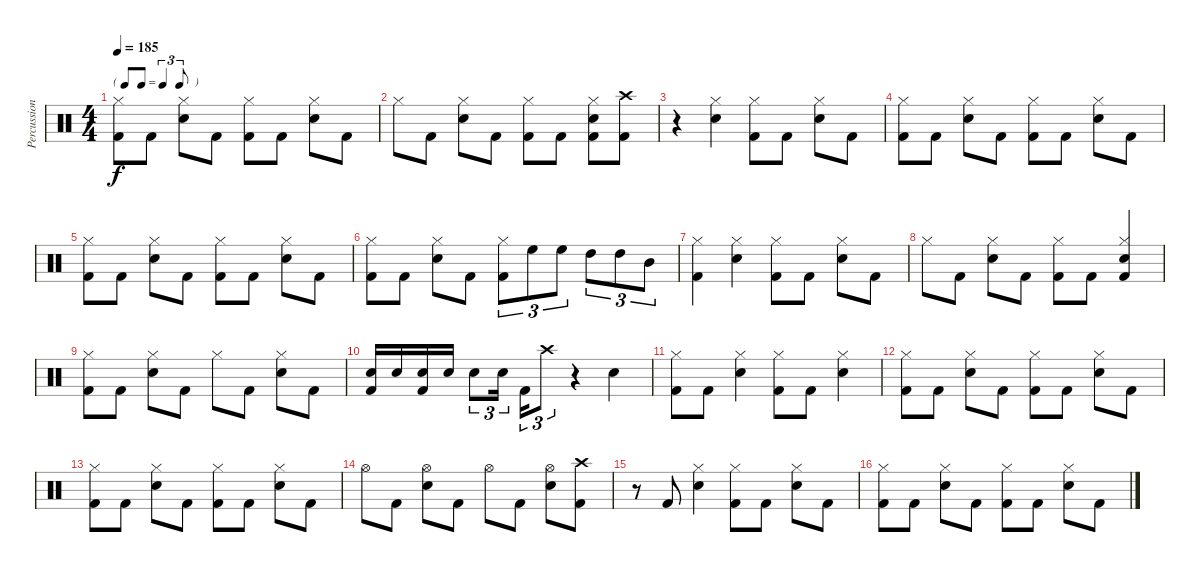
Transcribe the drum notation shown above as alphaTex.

\track ("Percussion" "Percussion") {instrument percussion}
\staff {score}
\articulation defaults
\ts (4 4)
\tf triplet8th
\tempo 185
\clef neutral
\ks c
("Kick (hit) 2" "Hi-Hat (closed)").8{dy f} "Kick (hit) 2".8 ("Snare (hit) 2" "Hi-Hat (closed)").8 "Kick (hit) 2".8 ("Kick (hit) 2" "Hi-Hat (closed)").8 "Kick (hit) 2".8 ("Snare (hit) 2" "Hi-Hat (closed)").8 "Kick (hit) 2".8 |
"Hi-Hat (closed)".8 "Kick (hit) 2".8 ("Snare (hit) 2" "Hi-Hat (closed)").8 "Kick (hit) 2".8 ("Kick (hit) 2" "Hi-Hat (closed)").8 "Kick (hit) 2".8 ("Kick (hit) 2" "Snare (hit) 2" "Hi-Hat (closed)").8 ("Kick (hit) 2" "Crash high (hit)").8 |
r.4 ("Snare (hit) 2" "Hi-Hat (closed)").4 ("Kick (hit) 2" "Hi-Hat (closed)").8 "Kick (hit) 2".8 ("Snare (hit) 2" "Hi-Hat (closed)").8 "Kick (hit) 2".8 |
("Kick (hit) 2" "Hi-Hat (closed)").8 "Kick (hit) 2".8 ("Snare (hit) 2" "Hi-Hat (closed)").8 "Kick (hit) 2".8 ("Kick (hit) 2" "Hi-Hat (closed)").8 "Kick (hit) 2".8 ("Snare (hit) 2" "Hi-Hat (closed)").8 "Kick (hit) 2".8 |
("Kick (hit) 2" "Hi-Hat (closed)").8 "Kick (hit) 2".8 ("Snare (hit) 2" "Hi-Hat (closed)").8 "Kick (hit) 2".8 ("Kick (hit) 2" "Hi-Hat (closed)").8 "Kick (hit) 2".8 ("Snare (hit) 2" "Hi-Hat (closed)").8 "Kick (hit) 2".8 |
("Kick (hit) 2" "Hi-Hat (closed)").8 "Kick (hit) 2".8 ("Snare (hit) 2" "Hi-Hat (closed)").8 "Kick (hit) 2".8 ("Kick (hit) 2" "Hi-Hat (closed)").8{tu (3 2)} "High Floor Tom (hit)".8{tu (3 2)} "High Floor Tom (hit)".8{tu (3 2)} "High Tom (hit)".8{tu (3 2)} "High Tom (hit)".8{tu (3 2)} "Mid Tom (hit)".8{tu (3 2)} |
("Kick (hit) 2" "Hi-Hat (closed)").4 ("Snare (hit) 2" "Hi-Hat (closed)").4 ("Kick (hit) 2" "Hi-Hat (closed)").8 "Kick (hit) 2".8 ("Snare (hit) 2" "Hi-Hat (closed)").8 "Kick (hit) 2".8 |
"Hi-Hat (closed)".8 "Kick (hit) 2".8 ("Snare (hit) 2" "Hi-Hat (closed)").8 "Kick (hit) 2".8 ("Kick (hit) 2" "Hi-Hat (closed)").8 "Kick (hit) 2".8 ("Kick (hit) 2" "Snare (hit) 2" "Hi-Hat (closed)").4 |
("Kick (hit) 2" "Hi-Hat (closed)").8 "Kick (hit) 2".8 ("Snare (hit) 2" "Hi-Hat (closed)").8 "Kick (hit) 2".8 "Hi-Hat (closed)".8 "Kick (hit) 2".8 ("Snare (hit) 2" "Hi-Hat (closed)").8 "Kick (hit) 2".8 |
("Kick (hit) 2" "Snare (hit) 2").16 "Snare (hit) 2".16 ("Kick (hit) 2" "Snare (hit) 2").16 "Snare (hit) 2".16 "Snare (hit) 2".8{tu (3 2)} "Snare (hit) 2".16{tu (3 2)} "Kick (hit) 2".16{tu (3 2)} "Crash high (hit)".8{tu (3 2)} r.4 "Snare (hit) 2".4 |
("Kick (hit) 2" "Hi-Hat (closed)").8 "Kick (hit) 2".8 ("Snare (hit) 2" "Hi-Hat (closed)").4 ("Kick (hit) 2" "Hi-Hat (closed)").8 "Kick (hit) 2".8 ("Snare (hit) 2" "Hi-Hat (closed)").4 |
("Kick (hit) 2" "Hi-Hat (closed)").8 "Kick (hit) 2".8 ("Snare (hit) 2" "Hi-Hat (closed)").8 "Kick (hit) 2".8 ("Kick (hit) 2" "Hi-Hat (closed)").8 "Kick (hit) 2".8 ("Snare (hit) 2" "Hi-Hat (closed)").8 "Kick (hit) 2".8 |
("Kick (hit) 2" "Hi-Hat (closed)").8 "Kick (hit) 2".8 ("Snare (hit) 2" "Hi-Hat (closed)").8 "Kick (hit) 2".8 ("Kick (hit) 2" "Hi-Hat (closed)").8 "Kick (hit) 2".8 ("Snare (hit) 2" "Hi-Hat (closed)").8 "Kick (hit) 2".8 |
"Hi-Hat (open)".8 "Kick (hit) 2".8 ("Snare (hit) 2" "Hi-Hat (open)").8 "Kick (hit) 2".8 "Hi-Hat (open)".8 "Kick (hit) 2".8 ("Snare (hit) 2" "Hi-Hat (open)").8 ("Kick (hit) 2" "Crash high (hit)").8 |
r.8 "Kick (hit) 2".8 ("Snare (hit) 2" "Hi-Hat (closed)").4 ("Kick (hit) 2" "Hi-Hat (closed)").8 "Kick (hit) 2".8 ("Snare (hit) 2" "Hi-Hat (closed)").8 "Kick (hit) 2".8 |
("Kick (hit) 2" "Hi-Hat (closed)").8 "Kick (hit) 2".8 ("Snare (hit) 2" "Hi-Hat (closed)").8 "Kick (hit) 2".8 ("Kick (hit) 2" "Hi-Hat (closed)").8 "Kick (hit) 2".8 ("Snare (hit) 2" "Hi-Hat (closed)").8 "Kick (hit) 2".8
